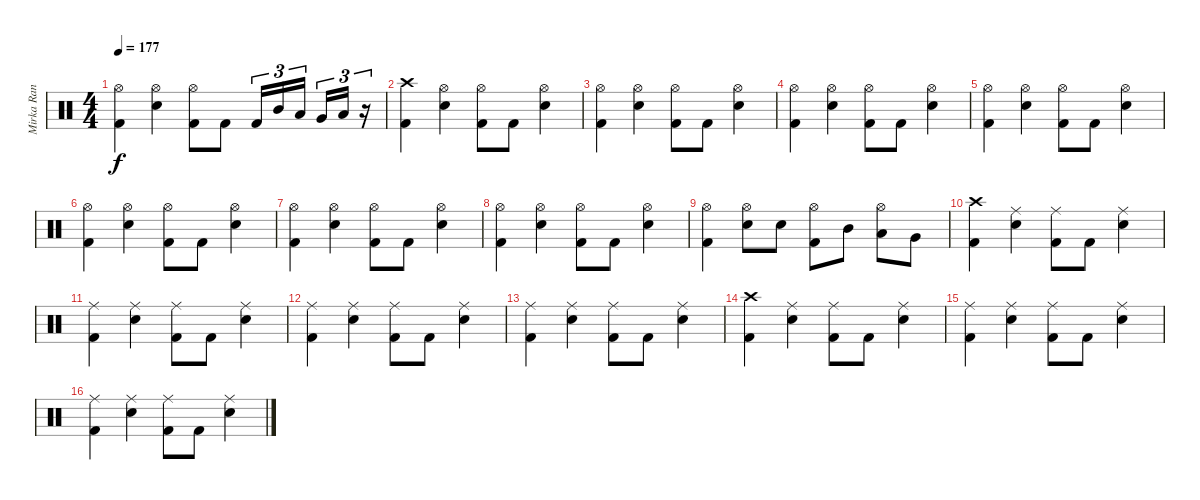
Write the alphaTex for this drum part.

\track (" Mirka Rantanen" " Mirka Ran") {instrument percussion}
\staff {score}
\articulation defaults
\ts (4 4)
\tempo 177
\clef neutral
\ks c
("Hi-Hat (open)" "Kick (hit) 2").4{dy f} ("Hi-Hat (open)" "Electric Snare (hit)").4 ("Hi-Hat (open)" "Kick (hit) 2").8 "Kick (hit) 2".8 "Kick (hit) 2".16{tu (3 2)} "Mid Tom (hit)".16{tu (3 2)} "Low Tom (hit)".16{tu (3 2) beam splitsecondary} "Very Low Tom (hit)".16{tu (3 2)} "Low Floor Tom (hit)".16{tu (3 2)} r.16{tu (3 2)} |
("Crash high (hit)" "Kick (hit) 2").4 ("Hi-Hat (open)" "Electric Snare (hit)").4 ("Hi-Hat (open)" "Kick (hit) 2").8 "Kick (hit) 2".8 ("Hi-Hat (open)" "Electric Snare (hit)").4 |
("Hi-Hat (open)" "Kick (hit) 2").4 ("Hi-Hat (open)" "Electric Snare (hit)").4 ("Hi-Hat (open)" "Kick (hit) 2").8 "Kick (hit) 2".8 ("Hi-Hat (open)" "Electric Snare (hit)").4 |
("Hi-Hat (open)" "Kick (hit) 2").4 ("Hi-Hat (open)" "Electric Snare (hit)").4 ("Hi-Hat (open)" "Kick (hit) 2").8 "Kick (hit) 2".8 ("Hi-Hat (open)" "Electric Snare (hit)").4 |
("Hi-Hat (open)" "Kick (hit) 2").4 ("Hi-Hat (open)" "Electric Snare (hit)").4 ("Hi-Hat (open)" "Kick (hit) 2").8 "Kick (hit) 2".8 ("Hi-Hat (open)" "Electric Snare (hit)").4 |
("Hi-Hat (open)" "Kick (hit) 2").4 ("Hi-Hat (open)" "Electric Snare (hit)").4 ("Hi-Hat (open)" "Kick (hit) 2").8 "Kick (hit) 2".8 ("Hi-Hat (open)" "Electric Snare (hit)").4 |
("Hi-Hat (open)" "Kick (hit) 2").4 ("Hi-Hat (open)" "Electric Snare (hit)").4 ("Hi-Hat (open)" "Kick (hit) 2").8 "Kick (hit) 2".8 ("Hi-Hat (open)" "Electric Snare (hit)").4 |
("Hi-Hat (open)" "Kick (hit) 2").4 ("Hi-Hat (open)" "Electric Snare (hit)").4 ("Hi-Hat (open)" "Kick (hit) 2").8 "Kick (hit) 2".8 ("Hi-Hat (open)" "Electric Snare (hit)").4 |
("Hi-Hat (open)" "Kick (hit) 2").4 ("Hi-Hat (open)" "Electric Snare (hit)").8 "Electric Snare (hit)".8 ("Hi-Hat (open)" "Kick (hit) 2").8 "Mid Tom (hit)".8 ("Hi-Hat (open)" "Low Tom (hit)").8 "Very Low Tom (hit)".8 |
("Crash high (hit)" "Kick (hit) 2").4 ("Ride (middle)" "Electric Snare (hit)").4 ("Ride (middle)" "Kick (hit) 2").8 "Kick (hit) 2".8 ("Ride (middle)" "Electric Snare (hit)").4 |
("Ride (middle)" "Kick (hit) 2").4 ("Ride (middle)" "Electric Snare (hit)").4 ("Ride (middle)" "Kick (hit) 2").8 "Kick (hit) 2".8 ("Ride (middle)" "Electric Snare (hit)").4 |
("Ride (middle)" "Kick (hit) 2").4 ("Ride (middle)" "Electric Snare (hit)").4 ("Ride (middle)" "Kick (hit) 2").8 "Kick (hit) 2".8 ("Ride (middle)" "Electric Snare (hit)").4 |
("Ride (middle)" "Kick (hit) 2").4 ("Ride (middle)" "Electric Snare (hit)").4 ("Ride (middle)" "Kick (hit) 2").8 "Kick (hit) 2".8 ("Ride (middle)" "Electric Snare (hit)").4 |
("Crash high (hit)" "Kick (hit) 2").4 ("Ride (middle)" "Electric Snare (hit)").4 ("Ride (middle)" "Kick (hit) 2").8 "Kick (hit) 2".8 ("Ride (middle)" "Electric Snare (hit)").4 |
("Ride (middle)" "Kick (hit) 2").4 ("Ride (middle)" "Electric Snare (hit)").4 ("Ride (middle)" "Kick (hit) 2").8 "Kick (hit) 2".8 ("Ride (middle)" "Electric Snare (hit)").4 |
("Ride (middle)" "Kick (hit) 2").4 ("Ride (middle)" "Electric Snare (hit)").4 ("Ride (middle)" "Kick (hit) 2").8 "Kick (hit) 2".8 ("Ride (middle)" "Electric Snare (hit)").4
